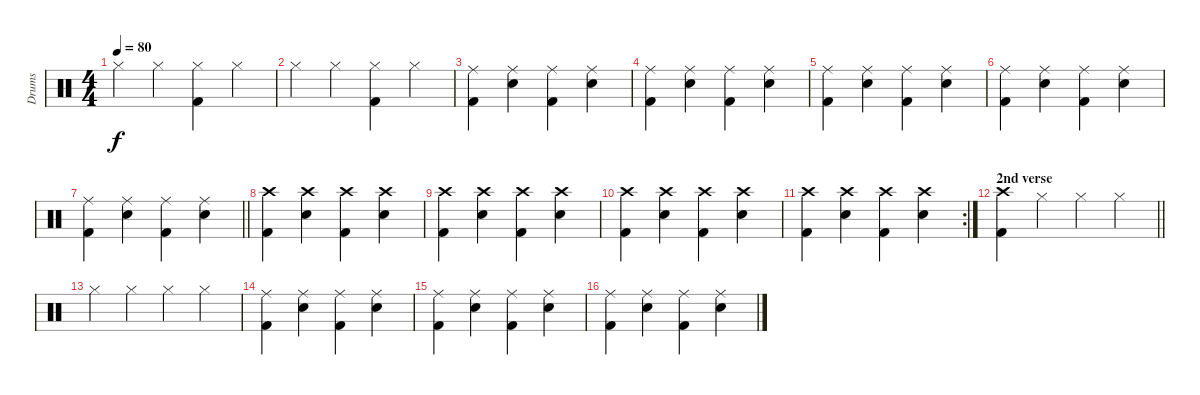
\track ("Drums" "Drums") {instrument percussion}
\staff {score}
\articulation defaults
\ts (4 4)
\tempo 80
\clef neutral
\ks c "Hi-Hat (closed)".4{dy f} "Hi-Hat (closed)".4
("Hi-Hat (closed)" "Kick (hit) 2").4 "Hi-Hat (closed)".4 |
"Hi-Hat (closed)".4 "Hi-Hat (closed)".4 ("Hi-Hat (closed)" "Kick (hit) 2").4 "Hi-Hat (closed)".4 |
("Ride (middle)" "Kick (hit) 2").4 ("Ride (middle)" "Electric Snare (hit)").4 ("Ride (middle)" "Kick (hit) 2").4 ("Ride (middle)" "Electric Snare (hit)").4 |
("Ride (middle)" "Kick (hit) 2").4 ("Ride (middle)" "Electric Snare (hit)").4 ("Ride (middle)" "Kick (hit) 2").4 ("Ride (middle)" "Electric Snare (hit)").4 |
("Ride (middle)" "Kick (hit) 2").4 ("Ride (middle)" "Electric Snare (hit)").4 ("Ride (middle)" "Kick (hit) 2").4 ("Ride (middle)" "Electric Snare (hit)").4 |
("Ride (middle)" "Kick (hit) 2").4 ("Ride (middle)" "Electric Snare (hit)").4 ("Ride (middle)" "Kick (hit) 2").4 ("Ride (middle)" "Electric Snare (hit)").4 |
\barLineRight lightlight
("Ride (middle)" "Kick (hit) 2").4 ("Ride (middle)" "Electric Snare (hit)").4 ("Ride (middle)" "Kick (hit) 2").4 ("Ride (middle)" "Electric Snare (hit)").4 |
("Crash high (hit)" "Kick (hit) 2").4 ("Crash high (hit)" "Electric Snare (hit)").4 ("Crash high (hit)" "Kick (hit) 2").4 ("Crash high (hit)" "Electric Snare (hit)").4 |
("Crash high (hit)" "Kick (hit) 2").4 ("Crash high (hit)" "Electric Snare (hit)").4 ("Crash high (hit)" "Kick (hit) 2").4 ("Crash high (hit)" "Electric Snare (hit)").4 |
("Crash high (hit)" "Kick (hit) 2").4 ("Crash high (hit)" "Electric Snare (hit)").4 ("Crash high (hit)" "Kick (hit) 2").4 ("Crash high (hit)" "Electric Snare (hit)").4 |
\rc 2
("Crash high (hit)" "Kick (hit) 2").4 ("Crash high (hit)" "Electric Snare (hit)").4 ("Crash high (hit)" "Kick (hit) 2").4 ("Crash high (hit)" "Electric Snare (hit)").4 |
\section ("" "2nd verse")
\barLineRight lightlight
("Crash high (hit)" "Kick (hit) 2").4 "Hi-Hat (closed)".4 "Hi-Hat (closed)".4 "Hi-Hat (closed)".4 |
"Hi-Hat (closed)".4 "Hi-Hat (closed)".4 "Hi-Hat (closed)".4 "Hi-Hat (closed)".4 |
("Ride (middle)" "Kick (hit) 2").4 ("Ride (middle)" "Electric Snare (hit)").4 ("Ride (middle)" "Kick (hit) 2").4 ("Ride (middle)" "Electric Snare (hit)").4 |
("Ride (middle)" "Kick (hit) 2").4 ("Ride (middle)" "Electric Snare (hit)").4 ("Ride (middle)" "Kick (hit) 2").4 ("Ride (middle)" "Electric Snare (hit)").4 |
("Ride (middle)" "Kick (hit) 2").4 ("Ride (middle)" "Electric Snare (hit)").4 ("Ride (middle)" "Kick (hit) 2").4 ("Ride (middle)" "Electric Snare (hit)").4
